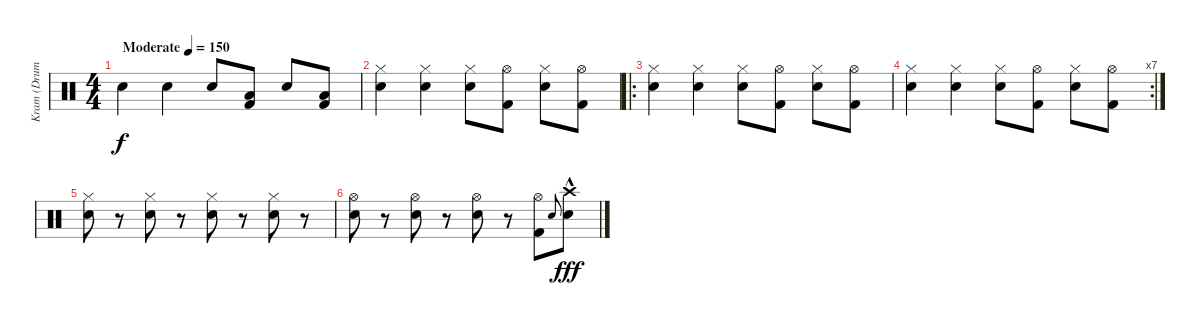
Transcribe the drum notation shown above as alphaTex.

\track ("Kram (Drums)" "Kram (Drum") {instrument percussion}
\staff {score}
\articulation defaults
\ts (4 4)
\tempo (150 "Moderate")
\clef neutral
\ks c "Snare (hit) 2".4{dy f} "Snare (hit) 2".4 "Snare (hit) 2".8
("Low Floor Tom (hit)" "Kick (hit) 2").8 "Snare (hit) 2".8 ("Low Floor Tom (hit)" "Kick (hit) 2").8 |
("Hi-Hat (closed)" "Snare (hit) 2").4 ("Hi-Hat (closed)" "Snare (hit) 2").4 ("Hi-Hat (closed)" "Snare (hit) 2").8 ("Hi-Hat (open)" "Kick (hit) 2").8 ("Hi-Hat (closed)" "Snare (hit) 2").8 ("Hi-Hat (open)" "Kick (hit) 2").8 |
\ro
("Hi-Hat (closed)" "Snare (hit) 2").4 ("Hi-Hat (closed)" "Snare (hit) 2").4 ("Hi-Hat (closed)" "Snare (hit) 2").8 ("Hi-Hat (open)" "Kick (hit) 2").8 ("Hi-Hat (closed)" "Snare (hit) 2").8 ("Hi-Hat (open)" "Kick (hit) 2").8 |
\rc 7
("Hi-Hat (closed)" "Snare (hit) 2").4 ("Hi-Hat (closed)" "Snare (hit) 2").4 ("Hi-Hat (closed)" "Snare (hit) 2").8 ("Hi-Hat (open)" "Kick (hit) 2").8 ("Hi-Hat (closed)" "Snare (hit) 2").8 ("Hi-Hat (open)" "Kick (hit) 2").8 |
("Hi-Hat (closed)" "Snare (hit) 2").8 r.8 ("Hi-Hat (closed)" "Snare (hit) 2").8 r.8 ("Hi-Hat (closed)" "Snare (hit) 2").8 r.8 ("Hi-Hat (closed)" "Snare (hit) 2").8 r.8 |
("Hi-Hat (open)" "Snare (hit) 2").8 r.8 ("Hi-Hat (open)" "Snare (hit) 2").8 r.8 ("Hi-Hat (open)" "Snare (hit) 2").8 r.8 ("Hi-Hat (open)" "Kick (hit) 2").8 "Snare (hit) 2".8{gr onbeat} ("Crash high (hit)" "Snare (hit) 2"{hac}).8{dy fff}
